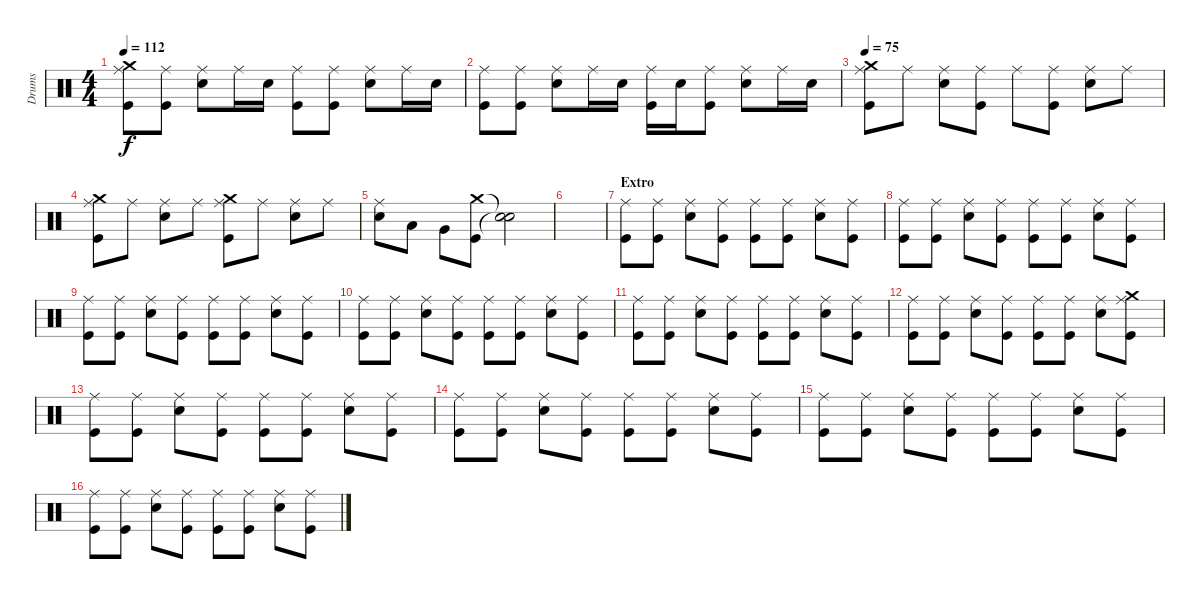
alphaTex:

\track ("Drums" "Drums") {instrument percussion}
\staff {score}
\articulation defaults
\ts (4 4)
\tempo 112
\clef neutral
\ks c
("Ride (middle)" "Crash medium (hit)" "Kick (hit)").8{dy f} ("Ride (middle)" "Kick (hit)").8 ("Ride (middle)" "Snare (hit) 2").8 "Ride (middle)".16 "Snare (hit) 2".16 ("Ride (middle)" "Kick (hit)").8 ("Ride (middle)" "Kick (hit)").8 ("Ride (middle)" "Snare (hit) 2").8 "Ride (middle)".16 "Snare (hit) 2".16 |
("Ride (middle)" "Kick (hit)").8 ("Ride (middle)" "Kick (hit)").8 ("Ride (middle)" "Snare (hit) 2").8 "Ride (middle)".16 "Snare (hit) 2".16 ("Ride (middle)" "Kick (hit)").16 "Snare (hit) 2".16 ("Ride (middle)" "Kick (hit)").8 ("Ride (middle)" "Snare (hit) 2").8 "Ride (middle)".16 "Snare (hit) 2".16 |
\tempo 75
("Ride (middle)" "Crash medium (hit)" "Kick (hit)").8 "Ride (middle)".8 ("Ride (middle)" "Snare (hit) 2").8 ("Ride (middle)" "Kick (hit)").8 "Ride (middle)".8 ("Ride (middle)" "Kick (hit)").8 ("Ride (middle)" "Snare (hit) 2").8 "Ride (middle)".8 |
("Ride (middle)" "Crash medium (hit)" "Kick (hit)").8 "Ride (middle)".8 ("Ride (middle)" "Snare (hit) 2").8 "Ride (middle)".8 ("Ride (middle)" "Crash medium (hit)" "Kick (hit)").8 "Ride (middle)".8 ("Ride (middle)" "Snare (hit) 2").8 "Ride (middle)".8 |
("Ride (middle)" "Snare (hit) 2").8 "Low Tom (hit)".8 "Very Low Tom (hit)".8 ("Crash medium (hit)" "Kick (hit)").8 ("Snare (hit)"{t} "Snare (hit)"{t}).2 |
|
\section ("" "Extro")
("Ride (middle)" "Kick (hit)").8 ("Ride (middle)" "Kick (hit)").8 ("Ride (middle)" "Snare (hit) 2").8 ("Ride (middle)" "Kick (hit)").8 ("Ride (middle)" "Kick (hit)").8 ("Ride (middle)" "Kick (hit)").8 ("Ride (middle)" "Snare (hit) 2").8 ("Ride (middle)" "Kick (hit)").8 |
("Ride (middle)" "Kick (hit)").8 ("Ride (middle)" "Kick (hit)").8 ("Ride (middle)" "Snare (hit) 2").8 ("Ride (middle)" "Kick (hit)").8 ("Ride (middle)" "Kick (hit)").8 ("Ride (middle)" "Kick (hit)").8 ("Ride (middle)" "Snare (hit) 2").8 ("Ride (middle)" "Kick (hit)").8 |
("Ride (middle)" "Kick (hit)").8 ("Ride (middle)" "Kick (hit)").8 ("Ride (middle)" "Snare (hit) 2").8 ("Ride (middle)" "Kick (hit)").8 ("Ride (middle)" "Kick (hit)").8 ("Ride (middle)" "Kick (hit)").8 ("Ride (middle)" "Snare (hit) 2").8 ("Ride (middle)" "Kick (hit)").8 |
("Ride (middle)" "Kick (hit)").8 ("Ride (middle)" "Kick (hit)").8 ("Ride (middle)" "Snare (hit) 2").8 ("Ride (middle)" "Kick (hit)").8 ("Ride (middle)" "Kick (hit)").8 ("Ride (middle)" "Kick (hit)").8 ("Ride (middle)" "Snare (hit) 2").8 ("Ride (middle)" "Kick (hit)").8 |
("Ride (middle)" "Kick (hit)").8 ("Ride (middle)" "Kick (hit)").8 ("Ride (middle)" "Snare (hit) 2").8 ("Ride (middle)" "Kick (hit)").8 ("Ride (middle)" "Kick (hit)").8 ("Ride (middle)" "Kick (hit)").8 ("Ride (middle)" "Snare (hit) 2").8 ("Ride (middle)" "Kick (hit)").8 |
("Ride (middle)" "Kick (hit)").8 ("Ride (middle)" "Kick (hit)").8 ("Ride (middle)" "Snare (hit) 2").8 ("Ride (middle)" "Kick (hit)").8 ("Ride (middle)" "Kick (hit)").8 ("Ride (middle)" "Kick (hit)").8 ("Ride (middle)" "Snare (hit) 2").8 ("Ride (middle)" "Crash medium (hit)" "Kick (hit)").8 |
("Ride (middle)" "Kick (hit)").8 ("Ride (middle)" "Kick (hit)").8 ("Ride (middle)" "Snare (hit) 2").8 ("Ride (middle)" "Kick (hit)").8 ("Ride (middle)" "Kick (hit)").8 ("Ride (middle)" "Kick (hit)").8 ("Ride (middle)" "Snare (hit) 2").8 ("Ride (middle)" "Kick (hit)").8 |
("Ride (middle)" "Kick (hit)").8 ("Ride (middle)" "Kick (hit)").8 ("Ride (middle)" "Snare (hit) 2").8 ("Ride (middle)" "Kick (hit)").8 ("Ride (middle)" "Kick (hit)").8 ("Ride (middle)" "Kick (hit)").8 ("Ride (middle)" "Snare (hit) 2").8 ("Ride (middle)" "Kick (hit)").8 |
("Ride (middle)" "Kick (hit)").8 ("Ride (middle)" "Kick (hit)").8 ("Ride (middle)" "Snare (hit) 2").8 ("Ride (middle)" "Kick (hit)").8 ("Ride (middle)" "Kick (hit)").8 ("Ride (middle)" "Kick (hit)").8 ("Ride (middle)" "Snare (hit) 2").8 ("Ride (middle)" "Kick (hit)").8 |
("Ride (middle)" "Kick (hit)").8 ("Ride (middle)" "Kick (hit)").8 ("Ride (middle)" "Snare (hit) 2").8 ("Ride (middle)" "Kick (hit)").8 ("Ride (middle)" "Kick (hit)").8 ("Ride (middle)" "Kick (hit)").8 ("Ride (middle)" "Snare (hit) 2").8 ("Ride (middle)" "Kick (hit)").8
